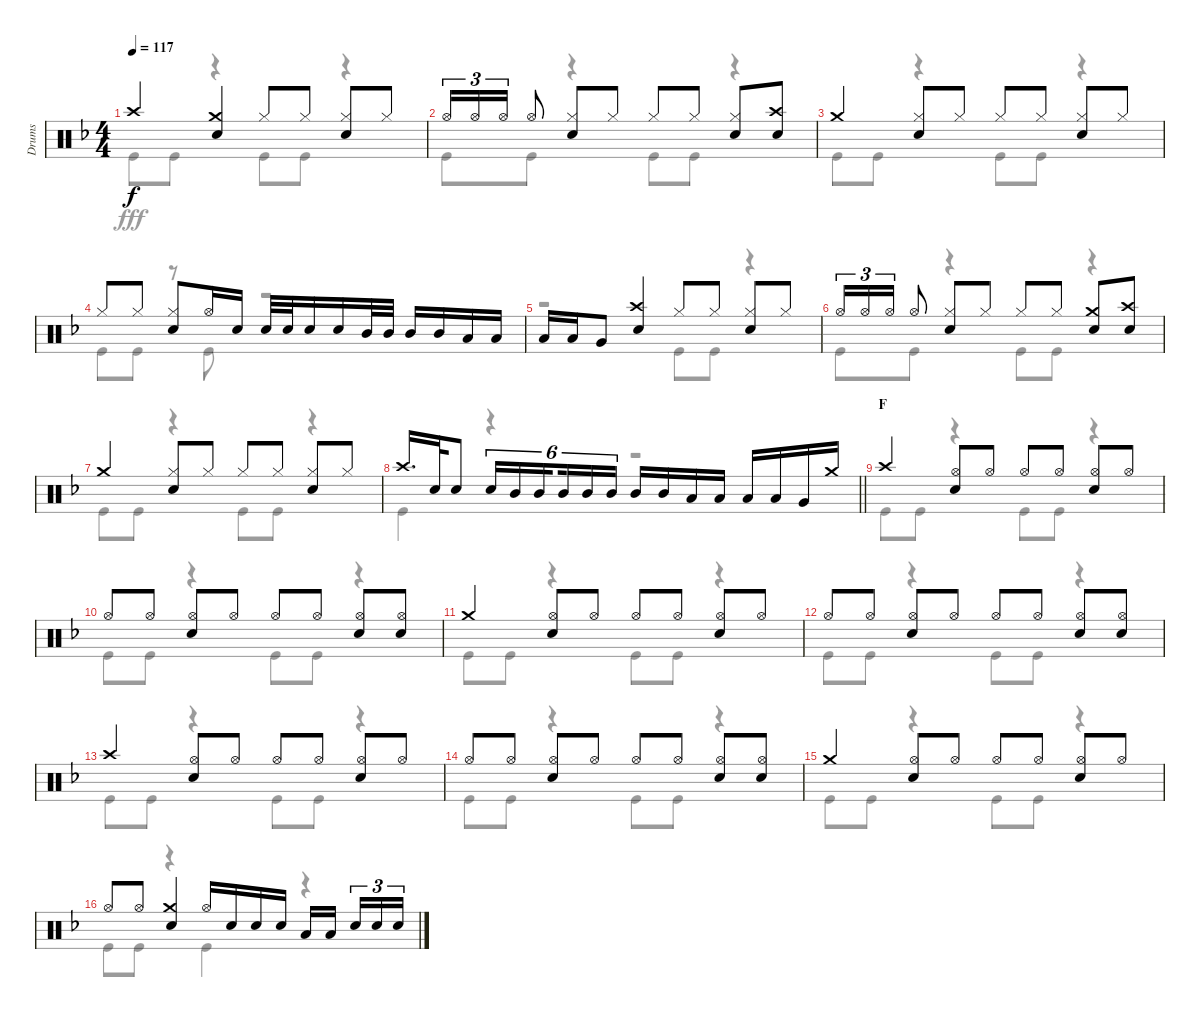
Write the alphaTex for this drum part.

\track ("Drums" "Drums") {instrument percussion}
\staff {score}
\articulation defaults
\voice
\ts (4 4)
\tempo 117
\clef neutral
\ks f "Crash high (hit)".4{dy f}
("Crash medium (hit)" "Snare (hit) 2").4 "Hi-Hat (closed)".8 "Hi-Hat (closed)".8 ("Hi-Hat (closed)" "Snare (hit) 2").8 "Hi-Hat (closed)".8 |
"Hi-Hat (open)".16{tu (3 2)} "Hi-Hat (open)".16{tu (3 2)} "Hi-Hat (open)".16{tu (3 2)} "Hi-Hat (open)".8 ("Hi-Hat (closed)" "Snare (hit) 2").8 "Hi-Hat (closed)".8 "Hi-Hat (closed)".8 "Hi-Hat (closed)".8 ("Hi-Hat (closed)" "Snare (hit) 2").8 ("Crash high (hit)" "Snare (hit) 2").8 |
"Crash medium (hit)".4 ("Hi-Hat (closed)" "Snare (hit) 2").8 "Hi-Hat (closed)".8 "Hi-Hat (closed)".8 "Hi-Hat (closed)".8 ("Hi-Hat (closed)" "Snare (hit) 2").8 "Hi-Hat (closed)".8 |
"Hi-Hat (closed)".8 "Hi-Hat (closed)".8 ("Hi-Hat (closed)" "Snare (hit) 2").8 "Hi-Hat (open)".16 "Snare (hit) 2".16 "Snare (hit) 2".32 "Snare (hit) 2".32 "Snare (hit) 2".16 "Snare (hit) 2".16 "Mid Tom (hit)".32 "Mid Tom (hit)".32 "Mid Tom (hit)".16 "Mid Tom (hit)".16 "Low Tom (hit)".16 "Low Tom (hit)".16 |
"Low Tom (hit)".16 "Low Tom (hit)".16 "Very Low Tom (hit)".8 ("Crash high (hit)" "Snare (hit) 2").4 "Hi-Hat (closed)".8 "Hi-Hat (closed)".8 ("Hi-Hat (closed)" "Snare (hit) 2").8 "Hi-Hat (closed)".8 |
"Hi-Hat (open)".16{tu (3 2)} "Hi-Hat (open)".16{tu (3 2)} "Hi-Hat (open)".16{tu (3 2)} "Hi-Hat (open)".8 ("Hi-Hat (closed)" "Snare (hit) 2").8 "Hi-Hat (closed)".8 "Hi-Hat (closed)".8 "Hi-Hat (closed)".8 ("Crash medium (hit)" "Snare (hit) 2").8 ("Crash high (hit)" "Snare (hit) 2").8 |
"Crash medium (hit)".4 ("Hi-Hat (closed)" "Snare (hit) 2").8 "Hi-Hat (closed)".8 "Hi-Hat (closed)".8 "Hi-Hat (closed)".8 ("Hi-Hat (closed)" "Snare (hit) 2").8 "Hi-Hat (closed)".8 |
\barLineRight lightlight "Crash high (hit)".16{d} "Snare (hit) 2".32 "Snare (hit) 2".8 "Snare (hit) 2".16{tu (6 4)} "Mid Tom (hit)".16{tu (6 4)} "Mid Tom (hit)".16{tu (6 4) beam splitsecondary} "Mid Tom (hit)".16{tu (6 4)} "Mid Tom (hit)".16{tu (6 4)} "Mid Tom (hit)".16{tu (6 4)} "Mid Tom (hit)".16 "Mid Tom (hit)".16 "Low Tom (hit)".16 "Low Tom (hit)".16 "Low Tom (hit)".16 "Low Tom (hit)".16 "Very Low Tom (hit)".16 "Crash medium (hit)".16
|
\section ("" "F")
"Crash high (hit)".4 ("Hi-Hat (open)" "Snare (hit) 2").8 "Hi-Hat (open)".8 "Hi-Hat (open)".8 "Hi-Hat (open)".8 ("Hi-Hat (open)" "Snare (hit) 2").8 "Hi-Hat (open)".8 |
"Hi-Hat (open)".8 "Hi-Hat (open)".8 ("Hi-Hat (open)" "Snare (hit) 2").8 "Hi-Hat (open)".8 "Hi-Hat (open)".8 "Hi-Hat (open)".8 ("Hi-Hat (open)" "Snare (hit) 2").8 ("Hi-Hat (open)" "Snare (hit) 2").8 |
"Crash medium (hit)".4 ("Hi-Hat (open)" "Snare (hit) 2").8 "Hi-Hat (open)".8 "Hi-Hat (open)".8 "Hi-Hat (open)".8 ("Hi-Hat (open)" "Snare (hit) 2").8 "Hi-Hat (open)".8 |
"Hi-Hat (open)".8 "Hi-Hat (open)".8 ("Hi-Hat (open)" "Snare (hit) 2").8 "Hi-Hat (open)".8 "Hi-Hat (open)".8 "Hi-Hat (open)".8 ("Hi-Hat (open)" "Snare (hit) 2").8 ("Hi-Hat (open)" "Snare (hit) 2").8 |
"Crash high (hit)".4 ("Hi-Hat (open)" "Snare (hit) 2").8 "Hi-Hat (open)".8 "Hi-Hat (open)".8 "Hi-Hat (open)".8 ("Hi-Hat (open)" "Snare (hit) 2").8 "Hi-Hat (open)".8 |
"Hi-Hat (open)".8 "Hi-Hat (open)".8 ("Hi-Hat (open)" "Snare (hit) 2").8 "Hi-Hat (open)".8 "Hi-Hat (open)".8 "Hi-Hat (open)".8 ("Hi-Hat (open)" "Snare (hit) 2").8 ("Hi-Hat (open)" "Snare (hit) 2").8 |
"Crash medium (hit)".4 ("Hi-Hat (open)" "Snare (hit) 2").8 "Hi-Hat (open)".8 "Hi-Hat (open)".8 "Hi-Hat (open)".8 ("Hi-Hat (open)" "Snare (hit) 2").8 "Hi-Hat (open)".8 |
"Hi-Hat (open)".8 "Hi-Hat (open)".8 ("Crash medium (hit)" "Snare (hit) 2").4 "Hi-Hat (open)".16 "Snare (hit) 2".16 "Snare (hit) 2".16 "Snare (hit) 2".16 "Low Tom (hit)".16 "Low Tom (hit)".16{beam splitsecondary} "Snare (hit) 2".16{tu (3 2)} "Snare (hit) 2".16{tu (3 2)} "Snare (hit) 2".16{tu (3 2)}
\voice
\clef neutral
\ottava regular
\simile none
\ks f "Kick (hit)".8{dy fff} "Kick (hit)".8
r.4 "Kick (hit)".8 "Kick (hit)".8 r.4 |
"Kick (hit)".8 "Kick (hit)".8 r.4 "Kick (hit)".8 "Kick (hit)".8 r.4 |
"Kick (hit)".8 "Kick (hit)".8 r.4 "Kick (hit)".8 "Kick (hit)".8 r.4 |
"Kick (hit)".8 "Kick (hit)".8 r.8 "Kick (hit)".8 r.2 |
r.2 "Kick (hit)".8 "Kick (hit)".8 r.4 |
"Kick (hit)".8 "Kick (hit)".8 r.4 "Kick (hit)".8 "Kick (hit)".8 r.4 |
"Kick (hit)".8 "Kick (hit)".8 r.4 "Kick (hit)".8 "Kick (hit)".8 r.4 |
\barLineRight lightlight "Kick (hit)".4
r.4 r.2 |
"Kick (hit)".8 "Kick (hit)".8 r.4 "Kick (hit)".8 "Kick (hit)".8 r.4 |
"Kick (hit)".8 "Kick (hit)".8 r.4 "Kick (hit)".8 "Kick (hit)".8 r.4 |
"Kick (hit)".8 "Kick (hit)".8 r.4 "Kick (hit)".8 "Kick (hit)".8 r.4 |
"Kick (hit)".8 "Kick (hit)".8 r.4 "Kick (hit)".8 "Kick (hit)".8 r.4 |
"Kick (hit)".8 "Kick (hit)".8 r.4 "Kick (hit)".8 "Kick (hit)".8 r.4 |
"Kick (hit)".8 "Kick (hit)".8 r.4 "Kick (hit)".8 "Kick (hit)".8 r.4 |
"Kick (hit)".8 "Kick (hit)".8 r.4 "Kick (hit)".8 "Kick (hit)".8 r.4 |
"Kick (hit)".8 "Kick (hit)".8 r.4 "Kick (hit)".4 r.4
